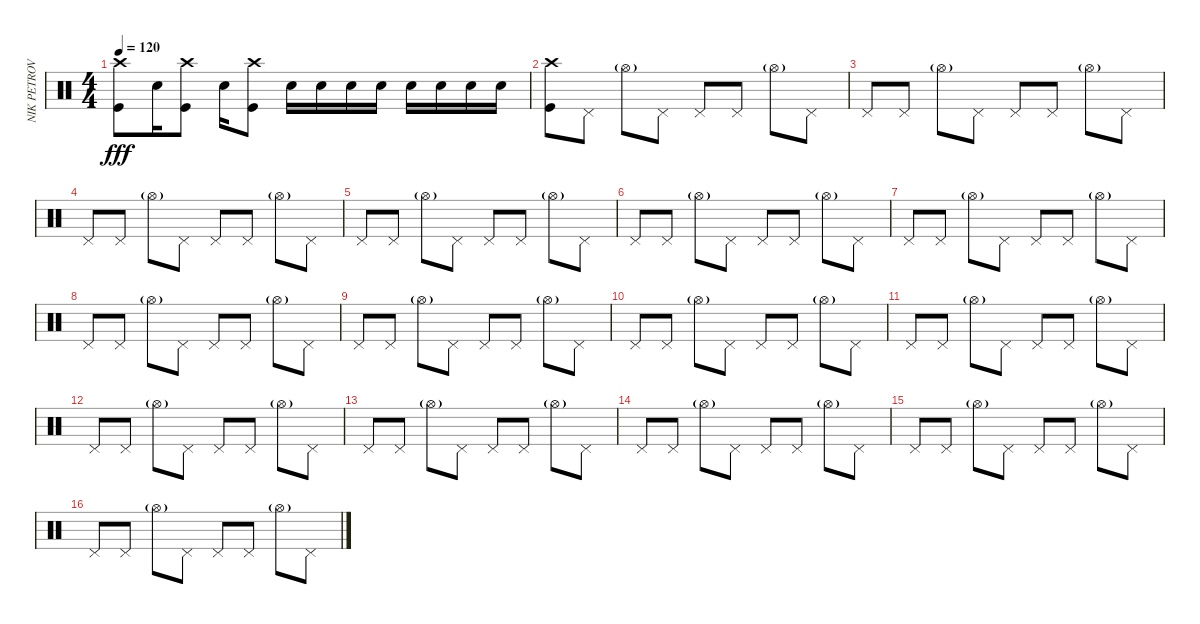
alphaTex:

\track ("NIK PETROV" "NIK PETROV") {instrument percussion}
\staff {score}
\articulation defaults
\ts (4 4)
\tempo 120
\clef neutral
\ks c
("Crash high (hit)" "Kick (hit)").8{dy fff} "Snare (hit) 2".16 ("Crash high (hit)" "Kick (hit)").8 "Snare (hit) 2".16 ("Crash high (hit)" "Kick (hit)").8 "Snare (hit) 2".16 "Snare (hit) 2".16 "Snare (hit) 2".16 "Snare (hit) 2".16 "Snare (hit) 2".16 "Snare (hit) 2".16 "Snare (hit) 2".16 "Snare (hit) 2".16 |
("Crash high (hit)" "Kick (hit)").8 "Pedal Hi-Hat (hit)".8 "Hi-Hat (open)"{g}.8 "Pedal Hi-Hat (hit)".8 "Pedal Hi-Hat (hit)".8 "Pedal Hi-Hat (hit)".8 "Hi-Hat (open)"{g}.8 "Pedal Hi-Hat (hit)".8 |
"Pedal Hi-Hat (hit)".8 "Pedal Hi-Hat (hit)".8 "Hi-Hat (open)"{g}.8 "Pedal Hi-Hat (hit)".8 "Pedal Hi-Hat (hit)".8 "Pedal Hi-Hat (hit)".8 "Hi-Hat (open)"{g}.8 "Pedal Hi-Hat (hit)".8 |
"Pedal Hi-Hat (hit)".8 "Pedal Hi-Hat (hit)".8 "Hi-Hat (open)"{g}.8 "Pedal Hi-Hat (hit)".8 "Pedal Hi-Hat (hit)".8 "Pedal Hi-Hat (hit)".8 "Hi-Hat (open)"{g}.8 "Pedal Hi-Hat (hit)".8 |
"Pedal Hi-Hat (hit)".8 "Pedal Hi-Hat (hit)".8 "Hi-Hat (open)"{g}.8 "Pedal Hi-Hat (hit)".8 "Pedal Hi-Hat (hit)".8 "Pedal Hi-Hat (hit)".8 "Hi-Hat (open)"{g}.8 "Pedal Hi-Hat (hit)".8 |
"Pedal Hi-Hat (hit)".8 "Pedal Hi-Hat (hit)".8 "Hi-Hat (open)"{g}.8 "Pedal Hi-Hat (hit)".8 "Pedal Hi-Hat (hit)".8 "Pedal Hi-Hat (hit)".8 "Hi-Hat (open)"{g}.8 "Pedal Hi-Hat (hit)".8 |
"Pedal Hi-Hat (hit)".8 "Pedal Hi-Hat (hit)".8 "Hi-Hat (open)"{g}.8 "Pedal Hi-Hat (hit)".8 "Pedal Hi-Hat (hit)".8 "Pedal Hi-Hat (hit)".8 "Hi-Hat (open)"{g}.8 "Pedal Hi-Hat (hit)".8 |
"Pedal Hi-Hat (hit)".8 "Pedal Hi-Hat (hit)".8 "Hi-Hat (open)"{g}.8 "Pedal Hi-Hat (hit)".8 "Pedal Hi-Hat (hit)".8 "Pedal Hi-Hat (hit)".8 "Hi-Hat (open)"{g}.8 "Pedal Hi-Hat (hit)".8 |
"Pedal Hi-Hat (hit)".8 "Pedal Hi-Hat (hit)".8 "Hi-Hat (open)"{g}.8 "Pedal Hi-Hat (hit)".8 "Pedal Hi-Hat (hit)".8 "Pedal Hi-Hat (hit)".8 "Hi-Hat (open)"{g}.8 "Pedal Hi-Hat (hit)".8 |
"Pedal Hi-Hat (hit)".8 "Pedal Hi-Hat (hit)".8 "Hi-Hat (open)"{g}.8 "Pedal Hi-Hat (hit)".8 "Pedal Hi-Hat (hit)".8 "Pedal Hi-Hat (hit)".8 "Hi-Hat (open)"{g}.8 "Pedal Hi-Hat (hit)".8 |
"Pedal Hi-Hat (hit)".8 "Pedal Hi-Hat (hit)".8 "Hi-Hat (open)"{g}.8 "Pedal Hi-Hat (hit)".8 "Pedal Hi-Hat (hit)".8 "Pedal Hi-Hat (hit)".8 "Hi-Hat (open)"{g}.8 "Pedal Hi-Hat (hit)".8 |
"Pedal Hi-Hat (hit)".8 "Pedal Hi-Hat (hit)".8 "Hi-Hat (open)"{g}.8 "Pedal Hi-Hat (hit)".8 "Pedal Hi-Hat (hit)".8 "Pedal Hi-Hat (hit)".8 "Hi-Hat (open)"{g}.8 "Pedal Hi-Hat (hit)".8 |
"Pedal Hi-Hat (hit)".8 "Pedal Hi-Hat (hit)".8 "Hi-Hat (open)"{g}.8 "Pedal Hi-Hat (hit)".8 "Pedal Hi-Hat (hit)".8 "Pedal Hi-Hat (hit)".8 "Hi-Hat (open)"{g}.8 "Pedal Hi-Hat (hit)".8 |
"Pedal Hi-Hat (hit)".8 "Pedal Hi-Hat (hit)".8 "Hi-Hat (open)"{g}.8 "Pedal Hi-Hat (hit)".8 "Pedal Hi-Hat (hit)".8 "Pedal Hi-Hat (hit)".8 "Hi-Hat (open)"{g}.8 "Pedal Hi-Hat (hit)".8 |
"Pedal Hi-Hat (hit)".8 "Pedal Hi-Hat (hit)".8 "Hi-Hat (open)"{g}.8 "Pedal Hi-Hat (hit)".8 "Pedal Hi-Hat (hit)".8 "Pedal Hi-Hat (hit)".8 "Hi-Hat (open)"{g}.8 "Pedal Hi-Hat (hit)".8 |
"Pedal Hi-Hat (hit)".8 "Pedal Hi-Hat (hit)".8 "Hi-Hat (open)"{g}.8 "Pedal Hi-Hat (hit)".8 "Pedal Hi-Hat (hit)".8 "Pedal Hi-Hat (hit)".8 "Hi-Hat (open)"{g}.8 "Pedal Hi-Hat (hit)".8
